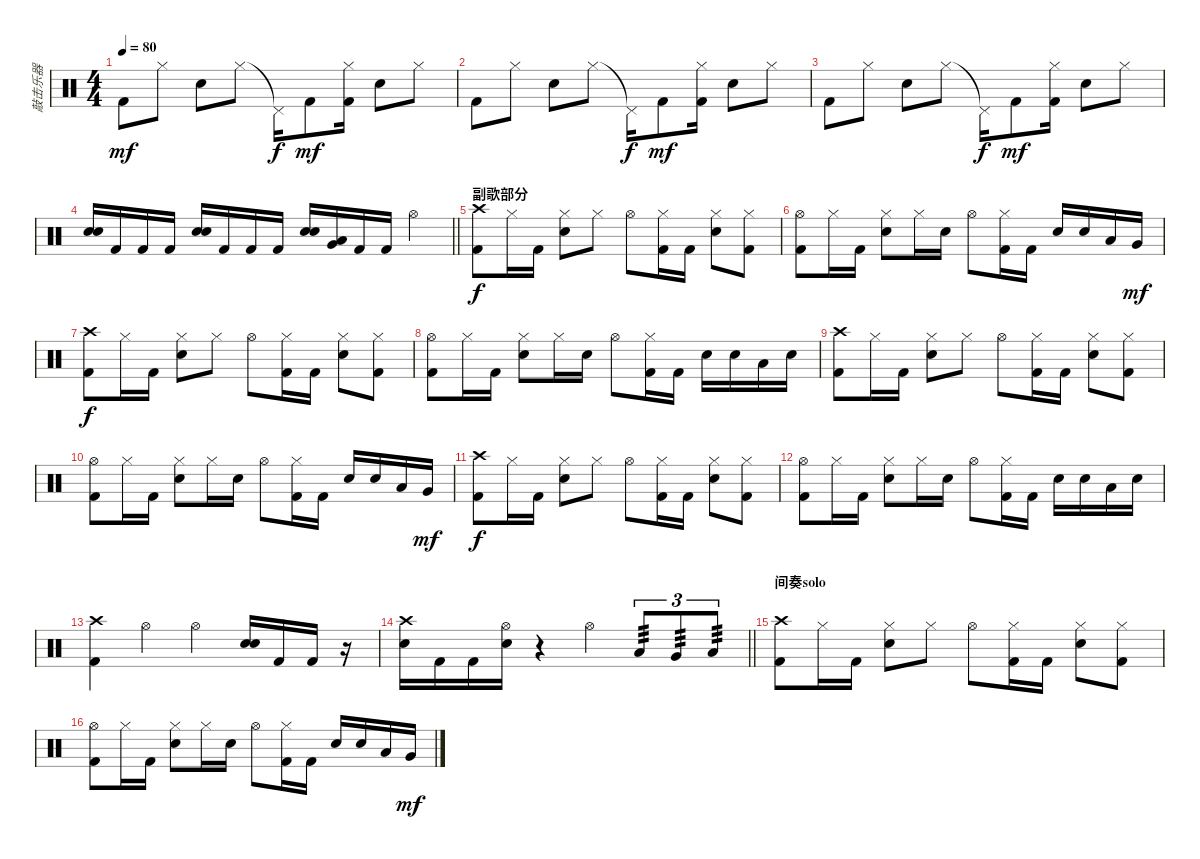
\track ("敲击乐器" "敲击乐器") {instrument percussion}
\staff {score}
\articulation defaults
\ts (4 4)
\tempo 80
\clef neutral
\ks c "Kick (hit) 2".8{dy mf} "Hi-Hat (closed)".8 "Snare (hit) 2".8 "Hi-Hat (closed)".8 "Pedal Hi-Hat (hit)"{t}.16{dy f} "Kick (hit) 2".8{dy mf}
("Hi-Hat (closed)" "Kick (hit) 2").16 "Snare (hit) 2".8 "Hi-Hat (closed)".8 |
"Kick (hit) 2".8 "Hi-Hat (closed)".8 "Snare (hit) 2".8 "Hi-Hat (closed)".8 "Pedal Hi-Hat (hit)"{t}.16{dy f} "Kick (hit) 2".8{dy mf} ("Hi-Hat (closed)" "Kick (hit) 2").16 "Snare (hit) 2".8 "Hi-Hat (closed)".8 |
"Kick (hit) 2".8 "Hi-Hat (closed)".8 "Snare (hit) 2".8 "Hi-Hat (closed)".8 "Pedal Hi-Hat (hit)"{t}.16{dy f} "Kick (hit) 2".8{dy mf} ("Hi-Hat (closed)" "Kick (hit) 2").16 "Snare (hit) 2".8 "Hi-Hat (closed)".8 |
\barLineRight lightlight
("Electric Snare (hit)" "Snare (hit) 2").16 "Kick (hit) 2".16 "Kick (hit) 2".16 "Kick (hit) 2".16 ("Electric Snare (hit)" "Snare (hit) 2").16 "Kick (hit) 2".16 "Kick (hit) 2".16 "Kick (hit) 2".16 ("Electric Snare (hit)" "Snare (hit) 2").16 ("Very Low Tom (hit)" "Low Tom (hit)").16 "Kick (hit) 2".16 "Kick (hit) 2".16 "Hi-Hat (open)".4 |
\section ("" "副歌部分")
("Crash high (hit)" "Kick (hit) 2").8{dy f} "Hi-Hat (closed)".16 "Kick (hit) 2".16 ("Hi-Hat (closed)" "Snare (hit) 2").8 "Hi-Hat (closed)".8 "Hi-Hat (open)".8 ("Hi-Hat (closed)" "Kick (hit) 2").16 "Kick (hit) 2".16 ("Hi-Hat (closed)" "Snare (hit) 2").8 ("Hi-Hat (closed)" "Kick (hit) 2").8 |
("Hi-Hat (open)" "Kick (hit) 2").8 "Hi-Hat (closed)".16 "Kick (hit) 2".16 ("Hi-Hat (closed)" "Snare (hit) 2").8 "Hi-Hat (closed)".16 "Snare (hit) 2".16 "Hi-Hat (open)".8 ("Hi-Hat (closed)" "Kick (hit) 2").16 "Kick (hit) 2".16 "Snare (hit) 2".16 "Snare (hit) 2".16 "Low Tom (hit)".16 "Very Low Tom (hit)".16{dy mf} |
("Crash high (hit)" "Kick (hit) 2").8{dy f} "Hi-Hat (closed)".16 "Kick (hit) 2".16 ("Hi-Hat (closed)" "Snare (hit) 2").8 "Hi-Hat (closed)".8 "Hi-Hat (open)".8 ("Hi-Hat (closed)" "Kick (hit) 2").16 "Kick (hit) 2".16 ("Hi-Hat (closed)" "Snare (hit) 2").8 ("Hi-Hat (closed)" "Kick (hit) 2").8 |
("Hi-Hat (open)" "Kick (hit) 2").8 "Hi-Hat (closed)".16 "Kick (hit) 2".16 ("Hi-Hat (closed)" "Snare (hit) 2").8 "Hi-Hat (closed)".16 "Snare (hit) 2".16 "Hi-Hat (open)".8 ("Hi-Hat (closed)" "Kick (hit) 2").16 "Kick (hit) 2".16 "Snare (hit) 2".16 "Snare (hit) 2".16 "Low Tom (hit)".16 "Snare (hit) 2".16 |
("Crash high (hit)" "Kick (hit) 2").8 "Hi-Hat (closed)".16 "Kick (hit) 2".16 ("Hi-Hat (closed)" "Snare (hit) 2").8 "Hi-Hat (closed)".8 "Hi-Hat (open)".8 ("Hi-Hat (closed)" "Kick (hit) 2").16 "Kick (hit) 2".16 ("Hi-Hat (closed)" "Snare (hit) 2").8 ("Hi-Hat (closed)" "Kick (hit) 2").8 |
("Hi-Hat (open)" "Kick (hit) 2").8 "Hi-Hat (closed)".16 "Kick (hit) 2".16 ("Hi-Hat (closed)" "Snare (hit) 2").8 "Hi-Hat (closed)".16 "Snare (hit) 2".16 "Hi-Hat (open)".8 ("Hi-Hat (closed)" "Kick (hit) 2").16 "Kick (hit) 2".16 "Snare (hit) 2".16 "Snare (hit) 2".16 "Low Tom (hit)".16 "Very Low Tom (hit)".16{dy mf} |
("Crash high (hit)" "Kick (hit) 2").8{dy f} "Hi-Hat (closed)".16 "Kick (hit) 2".16 ("Hi-Hat (closed)" "Snare (hit) 2").8 "Hi-Hat (closed)".8 "Hi-Hat (open)".8 ("Hi-Hat (closed)" "Kick (hit) 2").16 "Kick (hit) 2".16 ("Hi-Hat (closed)" "Snare (hit) 2").8 ("Hi-Hat (closed)" "Kick (hit) 2").8 |
("Hi-Hat (open)" "Kick (hit) 2").8 "Hi-Hat (closed)".16 "Kick (hit) 2".16 ("Hi-Hat (closed)" "Snare (hit) 2").8 "Hi-Hat (closed)".16 "Snare (hit) 2".16 "Hi-Hat (open)".8 ("Hi-Hat (closed)" "Kick (hit) 2").16 "Kick (hit) 2".16 "Snare (hit) 2".16 "Snare (hit) 2".16 "Low Tom (hit)".16 "Snare (hit) 2".16 |
("Crash high (hit)" "Kick (hit) 2").4 "Hi-Hat (open)".4 "Hi-Hat (open)".4 ("Electric Snare (hit)" "Snare (hit) 2").16 "Kick (hit) 2".16 "Kick (hit) 2".16 r.16 |
\barLineRight lightlight
("Crash high (hit)" "Snare (hit) 2").16 "Kick (hit) 2".16 "Kick (hit) 2".16 ("Hi-Hat (open)" "Snare (hit) 2").16 r.4 "Hi-Hat (open)".4 "Low Tom (hit)".8{tu (3 2) tp 3} "Very Low Tom (hit)".8{tu (3 2) tp 3} "Low Floor Tom (hit)".8{tu (3 2) tp 3} |
\section ("" "间奏solo")
("Crash high (hit)" "Kick (hit) 2").8 "Hi-Hat (closed)".16 "Kick (hit) 2".16 ("Hi-Hat (closed)" "Snare (hit) 2").8 "Hi-Hat (closed)".8 "Hi-Hat (open)".8 ("Hi-Hat (closed)" "Kick (hit) 2").16 "Kick (hit) 2".16 ("Hi-Hat (closed)" "Snare (hit) 2").8 ("Hi-Hat (closed)" "Kick (hit) 2").8 |
("Hi-Hat (open)" "Kick (hit) 2").8 "Hi-Hat (closed)".16 "Kick (hit) 2".16 ("Hi-Hat (closed)" "Snare (hit) 2").8 "Hi-Hat (closed)".16 "Snare (hit) 2".16 "Hi-Hat (open)".8 ("Hi-Hat (closed)" "Kick (hit) 2").16 "Kick (hit) 2".16 "Snare (hit) 2".16 "Snare (hit) 2".16 "Low Tom (hit)".16 "Very Low Tom (hit)".16{dy mf}
